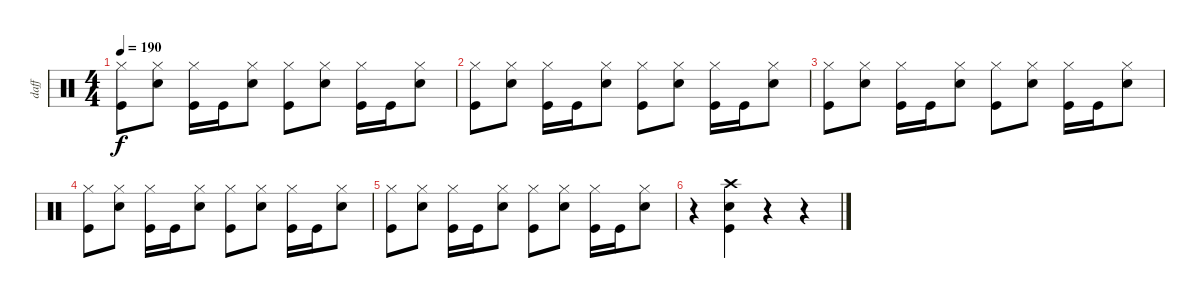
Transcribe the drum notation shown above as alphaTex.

\track ("daff" "daff") {instrument percussion}
\staff {score}
\articulation defaults
\ts (4 4)
\tempo 190
\clef neutral
\ks c
("Hi-Hat (closed)" "Kick (hit)").8{dy f} ("Hi-Hat (closed)" "Electric Snare (hit)").8 ("Hi-Hat (closed)" "Kick (hit)").16 "Kick (hit)".16 ("Hi-Hat (closed)" "Electric Snare (hit)").8 ("Hi-Hat (closed)" "Kick (hit)").8 ("Hi-Hat (closed)" "Electric Snare (hit)").8 ("Hi-Hat (closed)" "Kick (hit)").16 "Kick (hit)".16 ("Hi-Hat (closed)" "Electric Snare (hit)").8 |
("Hi-Hat (closed)" "Kick (hit)").8 ("Hi-Hat (closed)" "Electric Snare (hit)").8 ("Hi-Hat (closed)" "Kick (hit)").16 "Kick (hit)".16 ("Hi-Hat (closed)" "Electric Snare (hit)").8 ("Hi-Hat (closed)" "Kick (hit)").8 ("Hi-Hat (closed)" "Electric Snare (hit)").8 ("Hi-Hat (closed)" "Kick (hit)").16 "Kick (hit)".16 ("Hi-Hat (closed)" "Electric Snare (hit)").8 |
("Hi-Hat (closed)" "Kick (hit)").8 ("Hi-Hat (closed)" "Electric Snare (hit)").8 ("Hi-Hat (closed)" "Kick (hit)").16 "Kick (hit)".16 ("Hi-Hat (closed)" "Electric Snare (hit)").8 ("Hi-Hat (closed)" "Kick (hit)").8 ("Hi-Hat (closed)" "Electric Snare (hit)").8 ("Hi-Hat (closed)" "Kick (hit)").16 "Kick (hit)".16 ("Hi-Hat (closed)" "Electric Snare (hit)").8 |
("Hi-Hat (closed)" "Kick (hit)").8 ("Hi-Hat (closed)" "Electric Snare (hit)").8 ("Hi-Hat (closed)" "Kick (hit)").16 "Kick (hit)".16 ("Hi-Hat (closed)" "Electric Snare (hit)").8 ("Hi-Hat (closed)" "Kick (hit)").8 ("Hi-Hat (closed)" "Electric Snare (hit)").8 ("Hi-Hat (closed)" "Kick (hit)").16 "Kick (hit)".16 ("Hi-Hat (closed)" "Electric Snare (hit)").8 |
("Hi-Hat (closed)" "Kick (hit)").8 ("Hi-Hat (closed)" "Electric Snare (hit)").8 ("Hi-Hat (closed)" "Kick (hit)").16 "Kick (hit)".16 ("Hi-Hat (closed)" "Electric Snare (hit)").8 ("Hi-Hat (closed)" "Kick (hit)").8 ("Hi-Hat (closed)" "Electric Snare (hit)").8 ("Hi-Hat (closed)" "Kick (hit)").16 "Kick (hit)".16 ("Hi-Hat (closed)" "Electric Snare (hit)").8 |
r.4 ("Crash high (hit)" "Electric Snare (hit)" "Kick (hit)").4 r.4 r.4
